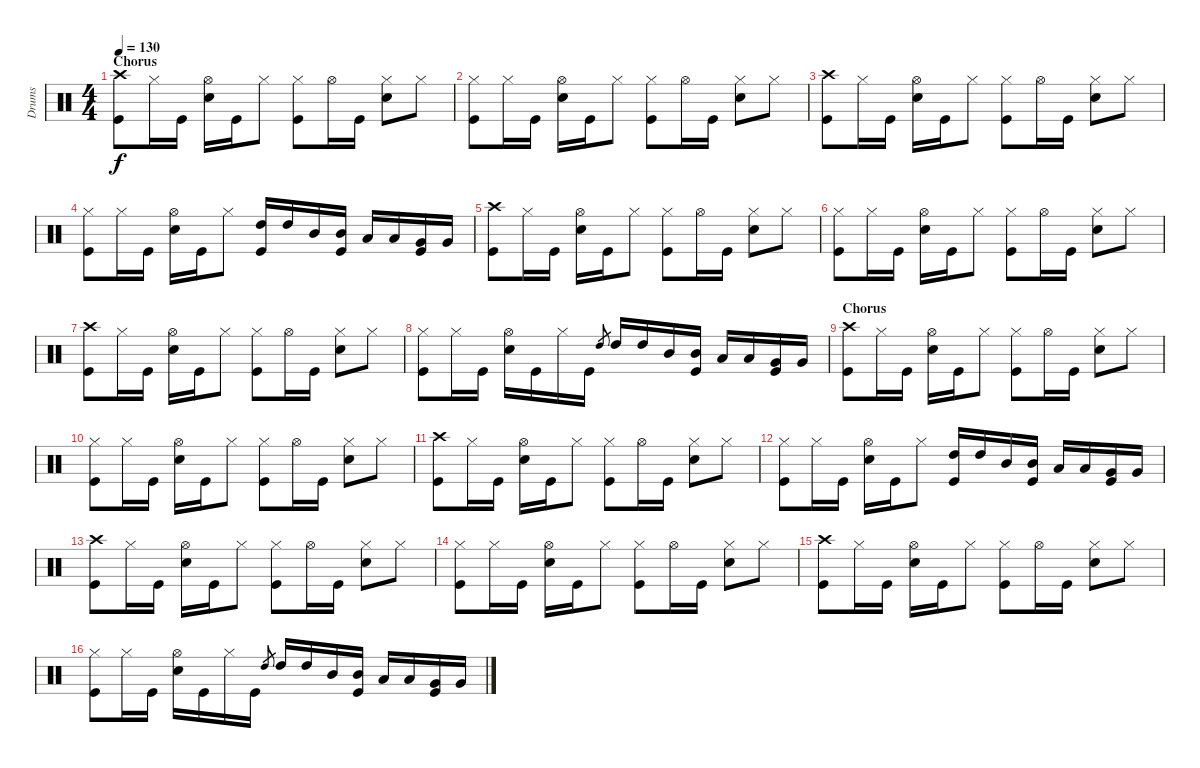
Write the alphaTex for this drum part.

\track ("Drums" "Drums") {instrument percussion}
\staff {score}
\articulation defaults
\ts (4 4)
\section ("" "Chorus")
\tempo 130
\clef neutral
\ks c
("Crash high (hit)" "Kick (hit)").8{dy f} "Hi-Hat (closed)".16 "Kick (hit)".16 ("Hi-Hat (open)" "Snare (hit) 2").16 "Kick (hit)".16 "Hi-Hat (closed)".8 ("Hi-Hat (closed)" "Kick (hit)").8 "Hi-Hat (open)".16 "Kick (hit)".16 ("Hi-Hat (closed)" "Snare (hit) 2").8 "Hi-Hat (closed)".8 |
("Hi-Hat (closed)" "Kick (hit)").8 "Hi-Hat (closed)".16 "Kick (hit)".16 ("Hi-Hat (open)" "Snare (hit) 2").16 "Kick (hit)".16 "Hi-Hat (closed)".8 ("Hi-Hat (closed)" "Kick (hit)").8 "Hi-Hat (open)".16 "Kick (hit)".16 ("Hi-Hat (closed)" "Snare (hit) 2").8 "Hi-Hat (closed)".8 |
("Crash high (hit)" "Kick (hit)").8 "Hi-Hat (closed)".16 "Kick (hit)".16 ("Hi-Hat (open)" "Snare (hit) 2").16 "Kick (hit)".16 "Hi-Hat (closed)".8 ("Hi-Hat (closed)" "Kick (hit)").8 "Hi-Hat (open)".16 "Kick (hit)".16 ("Hi-Hat (closed)" "Snare (hit) 2").8 "Hi-Hat (closed)".8 |
("Hi-Hat (closed)" "Kick (hit)").8 "Hi-Hat (closed)".16 "Kick (hit)".16 ("Hi-Hat (open)" "Snare (hit) 2").16 "Kick (hit)".16 "Hi-Hat (closed)".8 ("High Tom (hit)" "Kick (hit)").16 "High Tom (hit)".16 "Mid Tom (hit)".16 ("Mid Tom (hit)" "Kick (hit)").16 "Low Tom (hit)".16 "Low Tom (hit)".16 ("Very Low Tom (hit)" "Kick (hit)").16 "Very Low Tom (hit)".16 |
("Crash high (hit)" "Kick (hit)").8 "Hi-Hat (closed)".16 "Kick (hit)".16 ("Hi-Hat (open)" "Snare (hit) 2").16 "Kick (hit)".16 "Hi-Hat (closed)".8 ("Hi-Hat (closed)" "Kick (hit)").8 "Hi-Hat (open)".16 "Kick (hit)".16 ("Hi-Hat (closed)" "Snare (hit) 2").8 "Hi-Hat (closed)".8 |
("Hi-Hat (closed)" "Kick (hit)").8 "Hi-Hat (closed)".16 "Kick (hit)".16 ("Hi-Hat (open)" "Snare (hit) 2").16 "Kick (hit)".16 "Hi-Hat (closed)".8 ("Hi-Hat (closed)" "Kick (hit)").8 "Hi-Hat (open)".16 "Kick (hit)".16 ("Hi-Hat (closed)" "Snare (hit) 2").8 "Hi-Hat (closed)".8 |
("Crash high (hit)" "Kick (hit)").8 "Hi-Hat (closed)".16 "Kick (hit)".16 ("Hi-Hat (open)" "Snare (hit) 2").16 "Kick (hit)".16 "Hi-Hat (closed)".8 ("Hi-Hat (closed)" "Kick (hit)").8 "Hi-Hat (open)".16 "Kick (hit)".16 ("Hi-Hat (closed)" "Snare (hit) 2").8 "Hi-Hat (closed)".8 |
("Hi-Hat (closed)" "Kick (hit)").8 "Hi-Hat (closed)".16 "Kick (hit)".16 ("Hi-Hat (open)" "Snare (hit) 2").16 "Kick (hit)".16 "Hi-Hat (closed)".16 "Kick (hit)".16 "High Tom (hit)".8{gr} "High Tom (hit)".16 "High Tom (hit)".16 "Mid Tom (hit)".16 ("Mid Tom (hit)" "Kick (hit)").16 "Low Tom (hit)".16 "Low Tom (hit)".16 ("Very Low Tom (hit)" "Kick (hit)").16 "Very Low Tom (hit)".16 |
\section ("" "Chorus")
("Crash high (hit)" "Kick (hit)").8 "Hi-Hat (closed)".16 "Kick (hit)".16 ("Hi-Hat (open)" "Snare (hit) 2").16 "Kick (hit)".16 "Hi-Hat (closed)".8 ("Hi-Hat (closed)" "Kick (hit)").8 "Hi-Hat (open)".16 "Kick (hit)".16 ("Hi-Hat (closed)" "Snare (hit) 2").8 "Hi-Hat (closed)".8 |
("Hi-Hat (closed)" "Kick (hit)").8 "Hi-Hat (closed)".16 "Kick (hit)".16 ("Hi-Hat (open)" "Snare (hit) 2").16 "Kick (hit)".16 "Hi-Hat (closed)".8 ("Hi-Hat (closed)" "Kick (hit)").8 "Hi-Hat (open)".16 "Kick (hit)".16 ("Hi-Hat (closed)" "Snare (hit) 2").8 "Hi-Hat (closed)".8 |
("Crash high (hit)" "Kick (hit)").8 "Hi-Hat (closed)".16 "Kick (hit)".16 ("Hi-Hat (open)" "Snare (hit) 2").16 "Kick (hit)".16 "Hi-Hat (closed)".8 ("Hi-Hat (closed)" "Kick (hit)").8 "Hi-Hat (open)".16 "Kick (hit)".16 ("Hi-Hat (closed)" "Snare (hit) 2").8 "Hi-Hat (closed)".8 |
("Hi-Hat (closed)" "Kick (hit)").8 "Hi-Hat (closed)".16 "Kick (hit)".16 ("Hi-Hat (open)" "Snare (hit) 2").16 "Kick (hit)".16 "Hi-Hat (closed)".8 ("High Tom (hit)" "Kick (hit)").16 "High Tom (hit)".16 "Mid Tom (hit)".16 ("Mid Tom (hit)" "Kick (hit)").16 "Low Tom (hit)".16 "Low Tom (hit)".16 ("Very Low Tom (hit)" "Kick (hit)").16 "Very Low Tom (hit)".16 |
("Crash high (hit)" "Kick (hit)").8 "Hi-Hat (closed)".16 "Kick (hit)".16 ("Hi-Hat (open)" "Snare (hit) 2").16 "Kick (hit)".16 "Hi-Hat (closed)".8 ("Hi-Hat (closed)" "Kick (hit)").8 "Hi-Hat (open)".16 "Kick (hit)".16 ("Hi-Hat (closed)" "Snare (hit) 2").8 "Hi-Hat (closed)".8 |
("Hi-Hat (closed)" "Kick (hit)").8 "Hi-Hat (closed)".16 "Kick (hit)".16 ("Hi-Hat (open)" "Snare (hit) 2").16 "Kick (hit)".16 "Hi-Hat (closed)".8 ("Hi-Hat (closed)" "Kick (hit)").8 "Hi-Hat (open)".16 "Kick (hit)".16 ("Hi-Hat (closed)" "Snare (hit) 2").8 "Hi-Hat (closed)".8 |
("Crash high (hit)" "Kick (hit)").8 "Hi-Hat (closed)".16 "Kick (hit)".16 ("Hi-Hat (open)" "Snare (hit) 2").16 "Kick (hit)".16 "Hi-Hat (closed)".8 ("Hi-Hat (closed)" "Kick (hit)").8 "Hi-Hat (open)".16 "Kick (hit)".16 ("Hi-Hat (closed)" "Snare (hit) 2").8 "Hi-Hat (closed)".8 |
("Hi-Hat (closed)" "Kick (hit)").8 "Hi-Hat (closed)".16 "Kick (hit)".16 ("Hi-Hat (open)" "Snare (hit) 2").16 "Kick (hit)".16 "Hi-Hat (closed)".16 "Kick (hit)".16 "High Tom (hit)".8{gr} "High Tom (hit)".16 "High Tom (hit)".16 "Mid Tom (hit)".16 ("Mid Tom (hit)" "Kick (hit)").16 "Low Tom (hit)".16 "Low Tom (hit)".16 ("Very Low Tom (hit)" "Kick (hit)").16 "Very Low Tom (hit)".16
